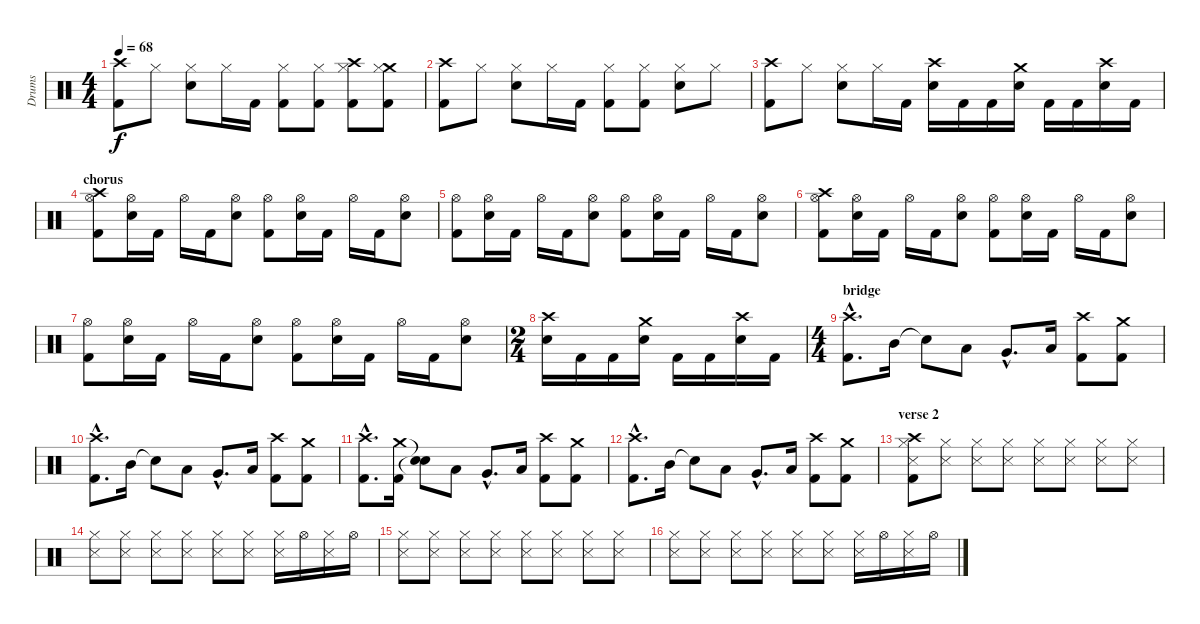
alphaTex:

\track ("Drums" "Drums") {instrument percussion}
\staff {score}
\articulation defaults
\ts (4 4)
\tempo 68
\clef neutral
\ks c
("Crash high (hit)" "Kick (hit) 2").8{dy f} "Hi-Hat (closed)".8 ("Hi-Hat (closed)" "Snare (hit) 2").8 "Hi-Hat (closed)".16 "Kick (hit) 2".16 ("Hi-Hat (closed)" "Kick (hit) 2").8 ("Hi-Hat (closed)" "Kick (hit) 2").8 ("Crash high (hit)" "Hi-Hat (closed)" "Kick (hit) 2").8 ("Crash medium (hit)" "Hi-Hat (closed)" "Kick (hit) 2").8 |
("Crash high (hit)" "Kick (hit) 2").8 "Hi-Hat (closed)".8 ("Hi-Hat (closed)" "Snare (hit) 2").8 "Hi-Hat (closed)".16 "Kick (hit) 2".16 ("Hi-Hat (closed)" "Kick (hit) 2").8 ("Hi-Hat (closed)" "Kick (hit) 2").8 ("Hi-Hat (closed)" "Snare (hit) 2").8 "Hi-Hat (closed)".8 |
("Crash high (hit)" "Kick (hit) 2").8 "Hi-Hat (closed)".8 ("Hi-Hat (closed)" "Snare (hit) 2").8 "Hi-Hat (closed)".16 "Kick (hit) 2".16 ("Crash high (hit)" "Snare (hit) 2").16 "Kick (hit) 2".16 "Kick (hit) 2".16 ("Crash medium (hit)" "Snare (hit) 2").16 "Kick (hit) 2".16 "Kick (hit) 2".16 ("Crash high (hit)" "Snare (hit) 2").16 "Kick (hit) 2".16 |
\section ("" "chorus")
("Crash high (hit)" "Hi-Hat (open)" "Kick (hit) 2").8 ("Hi-Hat (open)" "Snare (hit) 2").16 "Kick (hit) 2".16 "Hi-Hat (open)".16 "Kick (hit) 2".16 ("Hi-Hat (open)" "Snare (hit) 2").8 ("Hi-Hat (open)" "Kick (hit) 2").8 ("Hi-Hat (open)" "Snare (hit) 2").16 "Kick (hit) 2".16 "Hi-Hat (open)".16 "Kick (hit) 2".16 ("Hi-Hat (open)" "Snare (hit) 2").8 |
("Hi-Hat (open)" "Kick (hit) 2").8 ("Hi-Hat (open)" "Snare (hit) 2").16 "Kick (hit) 2".16 "Hi-Hat (open)".16 "Kick (hit) 2".16 ("Hi-Hat (open)" "Snare (hit) 2").8 ("Hi-Hat (open)" "Kick (hit) 2").8 ("Hi-Hat (open)" "Snare (hit) 2").16 "Kick (hit) 2".16 "Hi-Hat (open)".16 "Kick (hit) 2".16 ("Hi-Hat (open)" "Snare (hit) 2").8 |
("Crash high (hit)" "Hi-Hat (open)" "Kick (hit) 2").8 ("Hi-Hat (open)" "Snare (hit) 2").16 "Kick (hit) 2".16 "Hi-Hat (open)".16 "Kick (hit) 2".16 ("Hi-Hat (open)" "Snare (hit) 2").8 ("Hi-Hat (open)" "Kick (hit) 2").8 ("Hi-Hat (open)" "Snare (hit) 2").16 "Kick (hit) 2".16 "Hi-Hat (open)".16 "Kick (hit) 2".16 ("Hi-Hat (open)" "Snare (hit) 2").8 |
("Hi-Hat (open)" "Kick (hit) 2").8 ("Hi-Hat (open)" "Snare (hit) 2").16 "Kick (hit) 2".16 "Hi-Hat (open)".16 "Kick (hit) 2".16 ("Hi-Hat (open)" "Snare (hit) 2").8 ("Hi-Hat (open)" "Kick (hit) 2").8 ("Hi-Hat (open)" "Snare (hit) 2").16 "Kick (hit) 2".16 "Hi-Hat (open)".16 "Kick (hit) 2".16 ("Hi-Hat (open)" "Snare (hit) 2").8 |
\ts (2 4)
("Crash high (hit)" "Snare (hit) 2").16 "Kick (hit) 2".16 "Kick (hit) 2".16 ("Crash medium (hit)" "Snare (hit) 2").16 "Kick (hit) 2".16 "Kick (hit) 2".16 ("Crash high (hit)" "Snare (hit) 2").16 "Kick (hit) 2".16 |
\ts (4 4)
\section ("" "bridge")
("Crash high (hit)"{hac} "Kick (hit) 2"{hac}).8{d} "Mid Tom (hit)".16 "Snare (hit)"{t}.8 "Low Tom (hit)".8 "Very Low Tom (hit)"{hac}.8{d} "Low Floor Tom (hit)".16 ("Crash high (hit)" "Kick (hit) 2").8 ("Crash medium (hit)" "Kick (hit) 2").8 |
("Crash high (hit)"{hac} "Kick (hit) 2"{hac}).8{d} "Mid Tom (hit)".16 "Snare (hit)"{t}.8 "Low Tom (hit)".8 "Very Low Tom (hit)"{hac}.8{d} "Low Floor Tom (hit)".16 ("Crash high (hit)" "Kick (hit) 2").8 ("Crash medium (hit)" "Kick (hit) 2").8 |
("Crash high (hit)"{hac} "Kick (hit) 2"{hac}).8{d} ("Crash medium (hit)" "Kick (hit) 2").16 ("Snare (hit)"{t} "Snare (hit)"{t}).8 "Low Tom (hit)".8 "Very Low Tom (hit)"{hac}.8{d} "Low Floor Tom (hit)".16 ("Crash high (hit)" "Kick (hit) 2").8 ("Crash medium (hit)" "Kick (hit) 2").8 |
("Crash high (hit)"{hac} "Kick (hit) 2"{hac}).8{d} "Mid Tom (hit)".16 "Snare (hit)"{t}.8 "Low Tom (hit)".8 "Very Low Tom (hit)"{hac}.8{d} "Low Floor Tom (hit)".16 ("Crash high (hit)" "Kick (hit) 2").8 ("Crash medium (hit)" "Kick (hit) 2").8 |
\section ("" "verse 2")
("Crash high (hit)" "Snare (side stick) 3" "Hi-Hat (closed)" "Kick (hit) 2").8 ("Snare (side stick) 3" "Hi-Hat (closed)").8 ("Snare (side stick) 3" "Hi-Hat (closed)").8 ("Snare (side stick) 3" "Hi-Hat (closed)").8 ("Snare (side stick) 3" "Hi-Hat (closed)").8 ("Snare (side stick) 3" "Hi-Hat (closed)").8 ("Snare (side stick) 3" "Hi-Hat (closed)").8 ("Snare (side stick) 3" "Hi-Hat (closed)").8 |
("Snare (side stick) 3" "Hi-Hat (closed)").8 ("Snare (side stick) 3" "Hi-Hat (closed)").8 ("Snare (side stick) 3" "Hi-Hat (closed)").8 ("Snare (side stick) 3" "Hi-Hat (closed)").8 ("Snare (side stick) 3" "Hi-Hat (closed)").8 ("Snare (side stick) 3" "Hi-Hat (closed)").8 ("Snare (side stick) 3" "Hi-Hat (closed)").16 "Hi-Hat (open)".16 ("Snare (side stick) 3" "Hi-Hat (closed)").16 "Hi-Hat (open)".16 |
("Snare (side stick) 3" "Hi-Hat (closed)").8 ("Snare (side stick) 3" "Hi-Hat (closed)").8 ("Snare (side stick) 3" "Hi-Hat (closed)").8 ("Snare (side stick) 3" "Hi-Hat (closed)").8 ("Snare (side stick) 3" "Hi-Hat (closed)").8 ("Snare (side stick) 3" "Hi-Hat (closed)").8 ("Snare (side stick) 3" "Hi-Hat (closed)").8 ("Snare (side stick) 3" "Hi-Hat (closed)").8 |
("Snare (side stick) 3" "Hi-Hat (closed)").8 ("Snare (side stick) 3" "Hi-Hat (closed)").8 ("Snare (side stick) 3" "Hi-Hat (closed)").8 ("Snare (side stick) 3" "Hi-Hat (closed)").8 ("Snare (side stick) 3" "Hi-Hat (closed)").8 ("Snare (side stick) 3" "Hi-Hat (closed)").8 ("Snare (side stick) 3" "Hi-Hat (closed)").16 "Hi-Hat (open)".16 ("Snare (side stick) 3" "Hi-Hat (closed)").16 "Hi-Hat (open)".16
